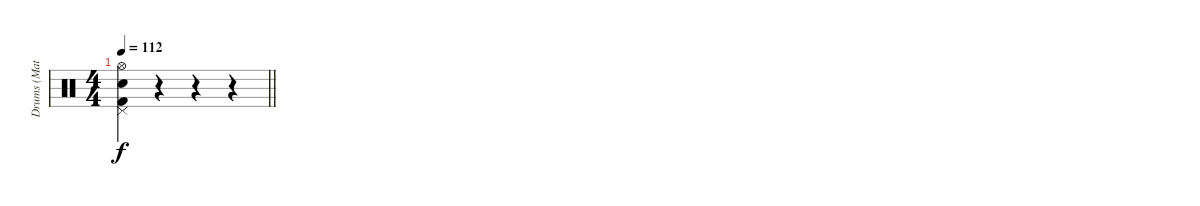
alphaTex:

\track ("Drums (Matt)" "Drums (Mat") {instrument percussion}
\staff {score}
\articulation defaults
\ts (4 4)
\tempo 112
\clef neutral
\barLineRight lightlight
\ks c
("Hi-Hat (open)" "Pedal Hi-Hat (hit)" "Electric Snare (hit)" "Kick (hit) 2").4{dy f} r.4 r.4 r.4
